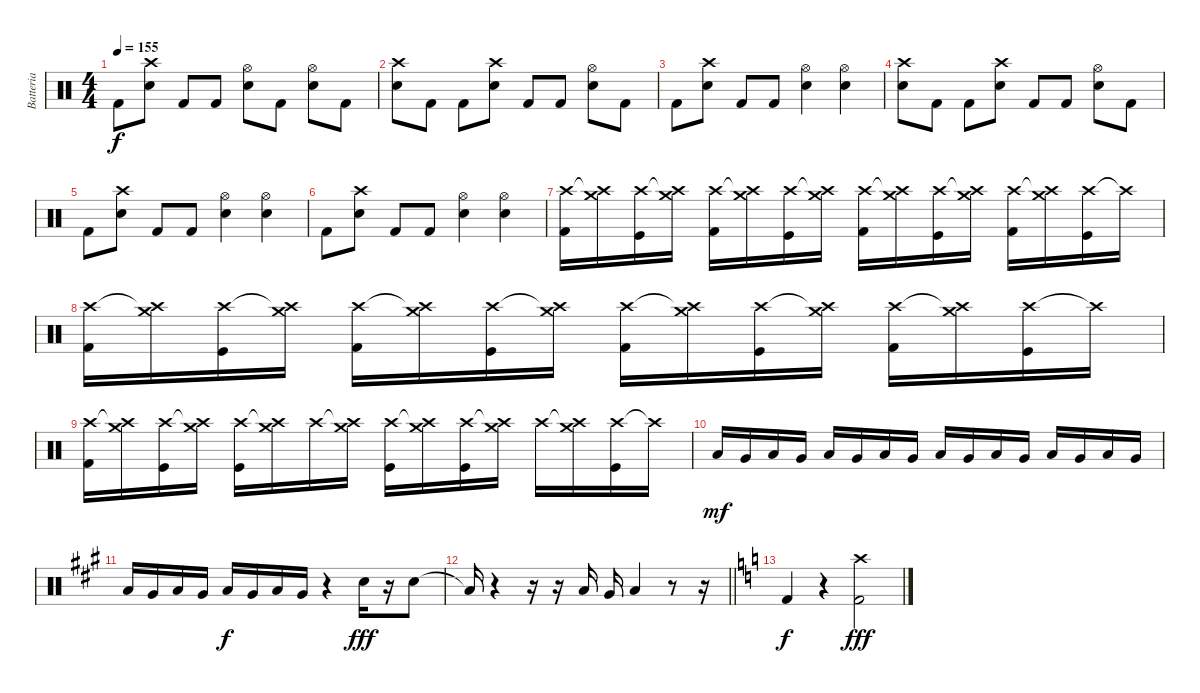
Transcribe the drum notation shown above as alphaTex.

\track ("Batteria" "Batteria") {instrument percussion bank 20}
\staff {score}
\articulation defaults
\ts (4 4)
\tempo 155
\clef neutral
\ks c "Kick (hit) 2".8{dy f}
("Crash high (hit)" "Snare (hit) 2").8 "Kick (hit) 2".8 "Kick (hit) 2".8 ("Hi-Hat (open)" "Snare (hit) 2").8 "Kick (hit) 2".8 ("Hi-Hat (open)" "Snare (hit) 2").8 "Kick (hit) 2".8 |
("Crash high (hit)" "Snare (hit) 2").8 "Kick (hit) 2".8 "Kick (hit) 2".8 ("Crash high (hit)" "Snare (hit) 2").8 "Kick (hit) 2".8 "Kick (hit) 2".8 ("Hi-Hat (open)" "Snare (hit) 2").8 "Kick (hit) 2".8 |
"Kick (hit) 2".8 ("Crash high (hit)" "Snare (hit) 2").8 "Kick (hit) 2".8 "Kick (hit) 2".8 ("Hi-Hat (open)" "Snare (hit) 2").4 ("Hi-Hat (open)" "Snare (hit) 2").4 |
("Crash high (hit)" "Snare (hit) 2").8 "Kick (hit) 2".8 "Kick (hit) 2".8 ("Crash high (hit)" "Snare (hit) 2").8 "Kick (hit) 2".8 "Kick (hit) 2".8 ("Hi-Hat (open)" "Snare (hit) 2").8 "Kick (hit) 2".8 |
"Kick (hit) 2".8 ("Crash high (hit)" "Snare (hit) 2").8 "Kick (hit) 2".8 "Kick (hit) 2".8 ("Hi-Hat (open)" "Snare (hit) 2").4 ("Hi-Hat (open)" "Snare (hit) 2").4 |
"Kick (hit) 2".8 ("Crash high (hit)" "Snare (hit) 2").8 "Kick (hit) 2".8 "Kick (hit) 2".8 ("Hi-Hat (open)" "Snare (hit) 2").4 ("Hi-Hat (open)" "Snare (hit) 2").4 |
("Crash high (hit)" "Kick (hit) 2").16 ("Crash high (hit)"{t} "Crash medium (hit)").16 ("Crash high (hit)" "Kick (hit)").16 ("Crash high (hit)"{t} "Crash medium (hit)").16 ("Crash high (hit)" "Kick (hit) 2").16 ("Crash high (hit)"{t} "Crash medium (hit)").16 ("Crash high (hit)" "Kick (hit)").16 ("Crash high (hit)"{t} "Crash medium (hit)").16 ("Crash high (hit)" "Kick (hit) 2").16 ("Crash high (hit)"{t} "Crash medium (hit)").16 ("Crash high (hit)" "Kick (hit)").16 ("Crash high (hit)"{t} "Crash medium (hit)").16 ("Crash high (hit)" "Kick (hit) 2").16 ("Crash high (hit)"{t} "Crash medium (hit)").16 ("Crash high (hit)" "Kick (hit)").16 "Crash high (hit)"{t}.16 |
("Crash high (hit)" "Kick (hit) 2").16 ("Crash high (hit)"{t} "Crash medium (hit)").16 ("Crash high (hit)" "Kick (hit)").16 ("Crash high (hit)"{t} "Crash medium (hit)").16 ("Crash high (hit)" "Kick (hit) 2").16 ("Crash high (hit)"{t} "Crash medium (hit)").16 ("Crash high (hit)" "Kick (hit)").16 ("Crash high (hit)"{t} "Crash medium (hit)").16 ("Crash high (hit)" "Kick (hit) 2").16 ("Crash high (hit)"{t} "Crash medium (hit)").16 ("Crash high (hit)" "Kick (hit)").16 ("Crash high (hit)"{t} "Crash medium (hit)").16 ("Crash high (hit)" "Kick (hit) 2").16 ("Crash high (hit)"{t} "Crash medium (hit)").16 ("Crash high (hit)" "Kick (hit)").16 "Crash high (hit)"{t}.16 |
("Crash high (hit)" "Kick (hit) 2").16 ("Crash high (hit)"{t} "Crash medium (hit)").16 ("Crash high (hit)" "Kick (hit)").16 ("Crash high (hit)"{t} "Crash medium (hit)").16 ("Crash high (hit)" "Kick (hit)").16 ("Crash high (hit)"{t} "Crash medium (hit)").16 "Crash high (hit)".16 ("Crash high (hit)"{t} "Crash medium (hit)").16 ("Crash high (hit)" "Kick (hit)").16 ("Crash high (hit)"{t} "Crash medium (hit)").16 ("Crash high (hit)" "Kick (hit)").16 ("Crash high (hit)"{t} "Crash medium (hit)").16 "Crash high (hit)".16 ("Crash high (hit)"{t} "Crash medium (hit)").16 ("Crash high (hit)" "Kick (hit)").16 "Crash high (hit)"{t}.16 |
"Low Floor Tom (hit)".16{dy mf} "Very Low Tom (hit)".16 "Low Floor Tom (hit)".16 "Very Low Tom (hit)".16 "Low Floor Tom (hit)".16 "Very Low Tom (hit)".16 "Low Floor Tom (hit)".16 "Very Low Tom (hit)".16 "Low Floor Tom (hit)".16 "Very Low Tom (hit)".16 "Low Floor Tom (hit)".16 "Very Low Tom (hit)".16 "Low Floor Tom (hit)".16 "Very Low Tom (hit)".16 "Low Floor Tom (hit)".16 "Very Low Tom (hit)".16 |
\ks a "Low Floor Tom (hit)".16 "Very Low Tom (hit)".16 "Low Floor Tom (hit)".16 "Very Low Tom (hit)".16 "Low Floor Tom (hit)".16{dy f} "Very Low Tom (hit)".16 "Low Floor Tom (hit)".16 "Very Low Tom (hit)".16
r.4 "Snare (hit) 2".16{dy fff} r.16 "Electric Snare (hit)".8 |
\barLineRight lightlight "Low Floor Tom (hit)"{t}.16
r.4 r.16 r.16 "Low Floor Tom (hit)".16 "Very Low Tom (hit)".16 "Low Floor Tom (hit)".4 r.8 r.16 |
\ks c "Kick (hit) 2".4{dy f}
r.4 ("Crash high (hit)" "Kick (hit) 2").2{dy fff}
